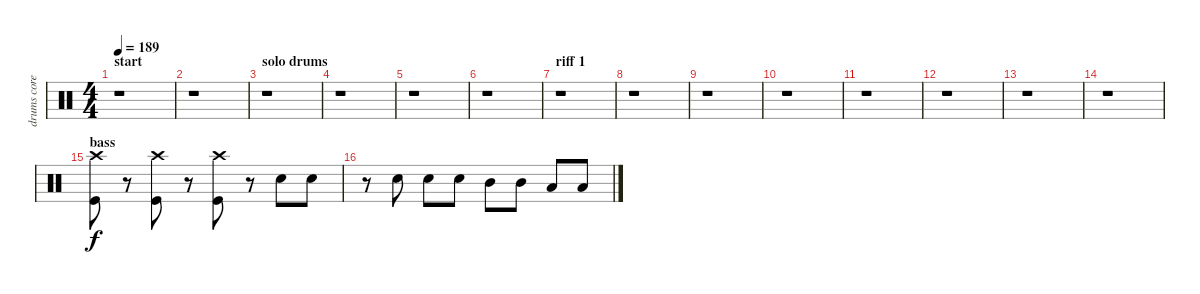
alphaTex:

\track ("drums core" "drums core") {instrument percussion}
\staff {score}
\articulation defaults
\ts (4 4)
\section ("" "start")
\tempo 189
\clef neutral
\ks c
r.1{dy f} |
r.1 |
\section ("" "solo drums")
r.1 |
r.1 |
r.1 |
r.1 |
\section ("" "riff 1")
r.1 |
r.1 |
r.1 |
r.1 |
r.1 |
r.1 |
r.1 |
r.1 |
\section ("" "bass")
("Crash high (hit)" "Kick (hit)").8 r.8 ("Crash high (hit)" "Kick (hit)").8 r.8 ("Crash high (hit)" "Kick (hit)").8 r.8 "Electric Snare (hit)".8 "Electric Snare (hit)".8 |
r.8 "Electric Snare (hit)".8 "Electric Snare (hit)".8 "Electric Snare (hit)".8 "Mid Tom (hit)".8 "Mid Tom (hit)".8 "Low Tom (hit)".8 "Low Tom (hit)".8
